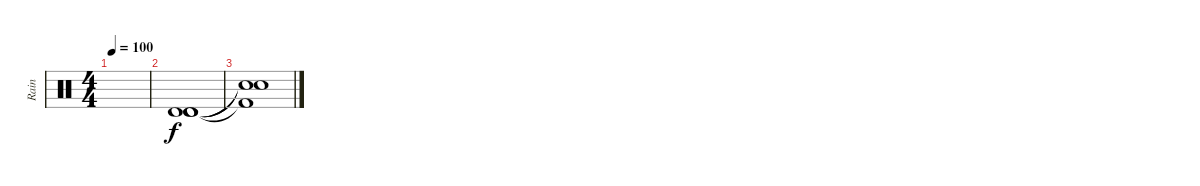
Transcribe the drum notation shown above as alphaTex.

\track ("Rain" "Rain") {instrument percussion}
\staff {score}
\articulation defaults
\ts (4 4)
\tempo 100
\clef neutral
\ks c
|
("Timbale high (hit)" "Timbale high (hit)" "Timbale high (hit)").1{bd 480} |
("Snare (hit)"{t} "Snare (hit)"{t} "Kick (hit) 2"{t}).1
